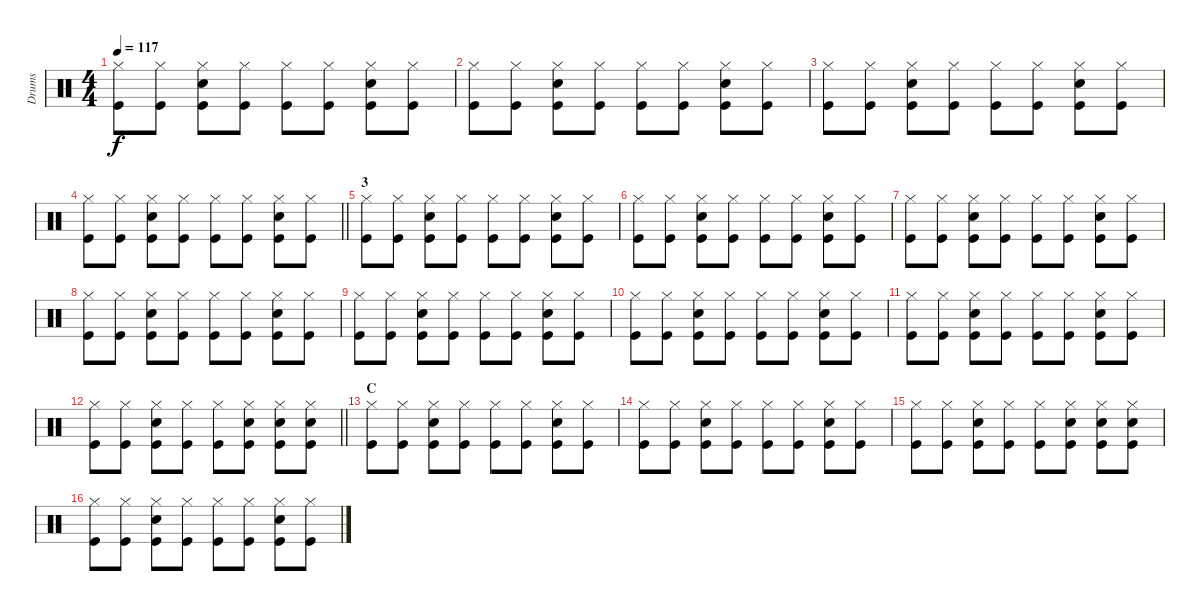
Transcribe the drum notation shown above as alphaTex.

\track ("Drums" "Drums") {instrument percussion}
\staff {score}
\articulation defaults
\ts (4 4)
\tempo 117
\clef neutral
\ks c
("Hi-Hat (closed)" "Kick (hit)").8{dy f} ("Hi-Hat (closed)" "Kick (hit)").8 ("Hi-Hat (closed)" "Electric Snare (hit)" "Kick (hit)").8 ("Hi-Hat (closed)" "Kick (hit)").8 ("Hi-Hat (closed)" "Kick (hit)").8 ("Hi-Hat (closed)" "Kick (hit)").8 ("Hi-Hat (closed)" "Electric Snare (hit)" "Kick (hit)").8 ("Hi-Hat (closed)" "Kick (hit)").8 |
("Hi-Hat (closed)" "Kick (hit)").8 ("Hi-Hat (closed)" "Kick (hit)").8 ("Hi-Hat (closed)" "Electric Snare (hit)" "Kick (hit)").8 ("Hi-Hat (closed)" "Kick (hit)").8 ("Hi-Hat (closed)" "Kick (hit)").8 ("Hi-Hat (closed)" "Kick (hit)").8 ("Hi-Hat (closed)" "Electric Snare (hit)" "Kick (hit)").8 ("Hi-Hat (closed)" "Kick (hit)").8 |
("Hi-Hat (closed)" "Kick (hit)").8 ("Hi-Hat (closed)" "Kick (hit)").8 ("Hi-Hat (closed)" "Electric Snare (hit)" "Kick (hit)").8 ("Hi-Hat (closed)" "Kick (hit)").8 ("Hi-Hat (closed)" "Kick (hit)").8 ("Hi-Hat (closed)" "Kick (hit)").8 ("Hi-Hat (closed)" "Electric Snare (hit)" "Kick (hit)").8 ("Hi-Hat (closed)" "Kick (hit)").8 |
\barLineRight lightlight
("Hi-Hat (closed)" "Kick (hit)").8 ("Hi-Hat (closed)" "Kick (hit)").8 ("Hi-Hat (closed)" "Electric Snare (hit)" "Kick (hit)").8 ("Hi-Hat (closed)" "Kick (hit)").8 ("Hi-Hat (closed)" "Kick (hit)").8 ("Hi-Hat (closed)" "Kick (hit)").8 ("Hi-Hat (closed)" "Electric Snare (hit)" "Kick (hit)").8 ("Hi-Hat (closed)" "Kick (hit)").8 |
\section ("" "3")
("Hi-Hat (closed)" "Kick (hit)").8 ("Hi-Hat (closed)" "Kick (hit)").8 ("Hi-Hat (closed)" "Electric Snare (hit)" "Kick (hit)").8 ("Hi-Hat (closed)" "Kick (hit)").8 ("Hi-Hat (closed)" "Kick (hit)").8 ("Hi-Hat (closed)" "Kick (hit)").8 ("Hi-Hat (closed)" "Electric Snare (hit)" "Kick (hit)").8 ("Hi-Hat (closed)" "Kick (hit)").8 |
("Hi-Hat (closed)" "Kick (hit)").8 ("Hi-Hat (closed)" "Kick (hit)").8 ("Hi-Hat (closed)" "Electric Snare (hit)" "Kick (hit)").8 ("Hi-Hat (closed)" "Kick (hit)").8 ("Hi-Hat (closed)" "Kick (hit)").8 ("Hi-Hat (closed)" "Kick (hit)").8 ("Hi-Hat (closed)" "Electric Snare (hit)" "Kick (hit)").8 ("Hi-Hat (closed)" "Kick (hit)").8 |
("Hi-Hat (closed)" "Kick (hit)").8 ("Hi-Hat (closed)" "Kick (hit)").8 ("Hi-Hat (closed)" "Electric Snare (hit)" "Kick (hit)").8 ("Hi-Hat (closed)" "Kick (hit)").8 ("Hi-Hat (closed)" "Kick (hit)").8 ("Hi-Hat (closed)" "Kick (hit)").8 ("Hi-Hat (closed)" "Electric Snare (hit)" "Kick (hit)").8 ("Hi-Hat (closed)" "Kick (hit)").8 |
("Hi-Hat (closed)" "Kick (hit)").8 ("Hi-Hat (closed)" "Kick (hit)").8 ("Hi-Hat (closed)" "Electric Snare (hit)" "Kick (hit)").8 ("Hi-Hat (closed)" "Kick (hit)").8 ("Hi-Hat (closed)" "Kick (hit)").8 ("Hi-Hat (closed)" "Kick (hit)").8 ("Hi-Hat (closed)" "Electric Snare (hit)" "Kick (hit)").8 ("Hi-Hat (closed)" "Kick (hit)").8 |
("Hi-Hat (closed)" "Kick (hit)").8 ("Hi-Hat (closed)" "Kick (hit)").8 ("Hi-Hat (closed)" "Electric Snare (hit)" "Kick (hit)").8 ("Hi-Hat (closed)" "Kick (hit)").8 ("Hi-Hat (closed)" "Kick (hit)").8 ("Hi-Hat (closed)" "Kick (hit)").8 ("Hi-Hat (closed)" "Electric Snare (hit)" "Kick (hit)").8 ("Hi-Hat (closed)" "Kick (hit)").8 |
("Hi-Hat (closed)" "Kick (hit)").8 ("Hi-Hat (closed)" "Kick (hit)").8 ("Hi-Hat (closed)" "Electric Snare (hit)" "Kick (hit)").8 ("Hi-Hat (closed)" "Kick (hit)").8 ("Hi-Hat (closed)" "Kick (hit)").8 ("Hi-Hat (closed)" "Kick (hit)").8 ("Hi-Hat (closed)" "Electric Snare (hit)" "Kick (hit)").8 ("Hi-Hat (closed)" "Kick (hit)").8 |
("Hi-Hat (closed)" "Kick (hit)").8 ("Hi-Hat (closed)" "Kick (hit)").8 ("Hi-Hat (closed)" "Electric Snare (hit)" "Kick (hit)").8 ("Hi-Hat (closed)" "Kick (hit)").8 ("Hi-Hat (closed)" "Kick (hit)").8 ("Hi-Hat (closed)" "Kick (hit)").8 ("Hi-Hat (closed)" "Electric Snare (hit)" "Kick (hit)").8 ("Hi-Hat (closed)" "Kick (hit)").8 |
\barLineRight lightlight
("Hi-Hat (closed)" "Kick (hit)").8 ("Hi-Hat (closed)" "Kick (hit)").8 ("Hi-Hat (closed)" "Electric Snare (hit)" "Kick (hit)").8 ("Hi-Hat (closed)" "Kick (hit)").8 ("Hi-Hat (closed)" "Kick (hit)").8 ("Hi-Hat (closed)" "Electric Snare (hit)" "Kick (hit)").8 ("Hi-Hat (closed)" "Electric Snare (hit)" "Kick (hit)").8 ("Hi-Hat (closed)" "Electric Snare (hit)" "Kick (hit)").8 |
\section ("" "C")
("Hi-Hat (closed)" "Kick (hit)").8 ("Hi-Hat (closed)" "Kick (hit)").8 ("Hi-Hat (closed)" "Electric Snare (hit)" "Kick (hit)").8 ("Hi-Hat (closed)" "Kick (hit)").8 ("Hi-Hat (closed)" "Kick (hit)").8 ("Hi-Hat (closed)" "Kick (hit)").8 ("Hi-Hat (closed)" "Electric Snare (hit)" "Kick (hit)").8 ("Hi-Hat (closed)" "Kick (hit)").8 |
("Hi-Hat (closed)" "Kick (hit)").8 ("Hi-Hat (closed)" "Kick (hit)").8 ("Hi-Hat (closed)" "Electric Snare (hit)" "Kick (hit)").8 ("Hi-Hat (closed)" "Kick (hit)").8 ("Hi-Hat (closed)" "Kick (hit)").8 ("Hi-Hat (closed)" "Kick (hit)").8 ("Hi-Hat (closed)" "Electric Snare (hit)" "Kick (hit)").8 ("Hi-Hat (closed)" "Kick (hit)").8 |
("Hi-Hat (closed)" "Kick (hit)").8 ("Hi-Hat (closed)" "Kick (hit)").8 ("Hi-Hat (closed)" "Electric Snare (hit)" "Kick (hit)").8 ("Hi-Hat (closed)" "Kick (hit)").8 ("Hi-Hat (closed)" "Kick (hit)").8 ("Hi-Hat (closed)" "Electric Snare (hit)" "Kick (hit)").8 ("Hi-Hat (closed)" "Electric Snare (hit)" "Kick (hit)").8 ("Hi-Hat (closed)" "Electric Snare (hit)" "Kick (hit)").8 |
("Hi-Hat (closed)" "Kick (hit)").8 ("Hi-Hat (closed)" "Kick (hit)").8 ("Hi-Hat (closed)" "Electric Snare (hit)" "Kick (hit)").8 ("Hi-Hat (closed)" "Kick (hit)").8 ("Hi-Hat (closed)" "Kick (hit)").8 ("Hi-Hat (closed)" "Kick (hit)").8 ("Hi-Hat (closed)" "Electric Snare (hit)" "Kick (hit)").8 ("Hi-Hat (closed)" "Kick (hit)").8
